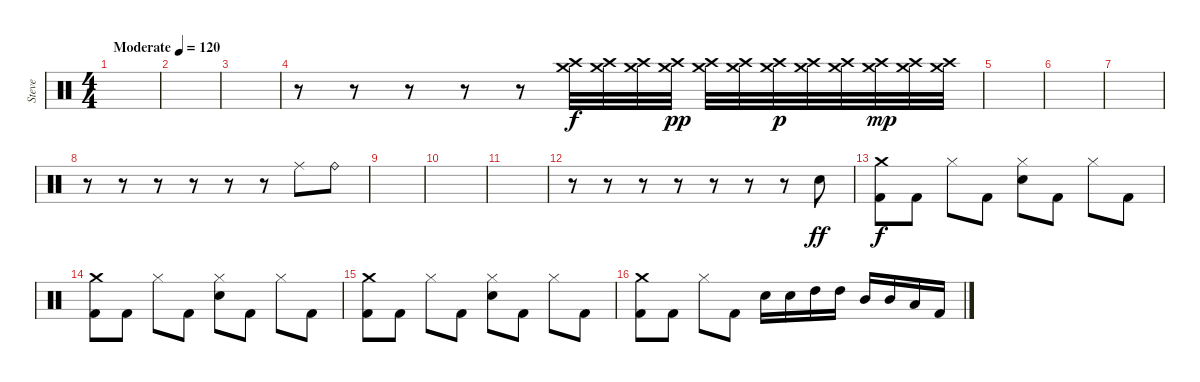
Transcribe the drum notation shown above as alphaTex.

\track ("Steve" "Steve") {instrument percussion}
\staff {score}
\articulation defaults
\ts (4 4)
\tempo (120 "Moderate")
\clef neutral
\ks c
|
|
|
r.8 r.8 r.8 r.8 r.8 ("Crash medium (hit)" "Crash high (hit)").32 ("Crash medium (hit)" "Crash high (hit)").32 ("Crash medium (hit)" "Crash high (hit)").32 ("Crash medium (hit)" "Crash high (hit)").32{dy pp} ("Crash medium (hit)" "Crash high (hit)").32 ("Crash medium (hit)" "Crash high (hit)").32 ("Crash medium (hit)" "Crash high (hit)").32{dy p} ("Crash medium (hit)" "Crash high (hit)").32 ("Crash medium (hit)" "Crash high (hit)").32 ("Crash medium (hit)" "Crash high (hit)").32{dy mp} ("Crash medium (hit)" "Crash high (hit)").32 ("Crash medium (hit)" "Crash high (hit)").32 |
|
|
|
r.8 r.8 r.8 r.8 r.8 r.8 "Ride (middle)".8 "Ride (bell)".8 |
|
|
|
r.8 r.8 r.8 r.8 r.8 r.8 r.8 "Electric Snare (hit)".8{dy ff} |
("Crash medium (hit)" "Kick (hit) 2").8{dy f} "Kick (hit) 2".8 "Hi-Hat (closed)".8 "Kick (hit) 2".8 ("Hi-Hat (closed)" "Electric Snare (hit)").8 "Kick (hit) 2".8 "Hi-Hat (closed)".8 "Kick (hit) 2".8 |
("Crash medium (hit)" "Kick (hit) 2").8 "Kick (hit) 2".8 "Hi-Hat (closed)".8 "Kick (hit) 2".8 ("Hi-Hat (closed)" "Electric Snare (hit)").8 "Kick (hit) 2".8 "Hi-Hat (closed)".8 "Kick (hit) 2".8 |
("Crash medium (hit)" "Kick (hit) 2").8 "Kick (hit) 2".8 "Hi-Hat (closed)".8 "Kick (hit) 2".8 ("Hi-Hat (closed)" "Electric Snare (hit)").8 "Kick (hit) 2".8 "Hi-Hat (closed)".8 "Kick (hit) 2".8 |
("Crash medium (hit)" "Kick (hit) 2").8 "Kick (hit) 2".8 "Hi-Hat (closed)".8 "Kick (hit) 2".8 "Electric Snare (hit)".16 "Electric Snare (hit)".16 "High Tom (hit)".16 "High Tom (hit)".16 "Mid Tom (hit)".16 "Mid Tom (hit)".16 "Low Tom (hit)".16 "Kick (hit) 2".16
